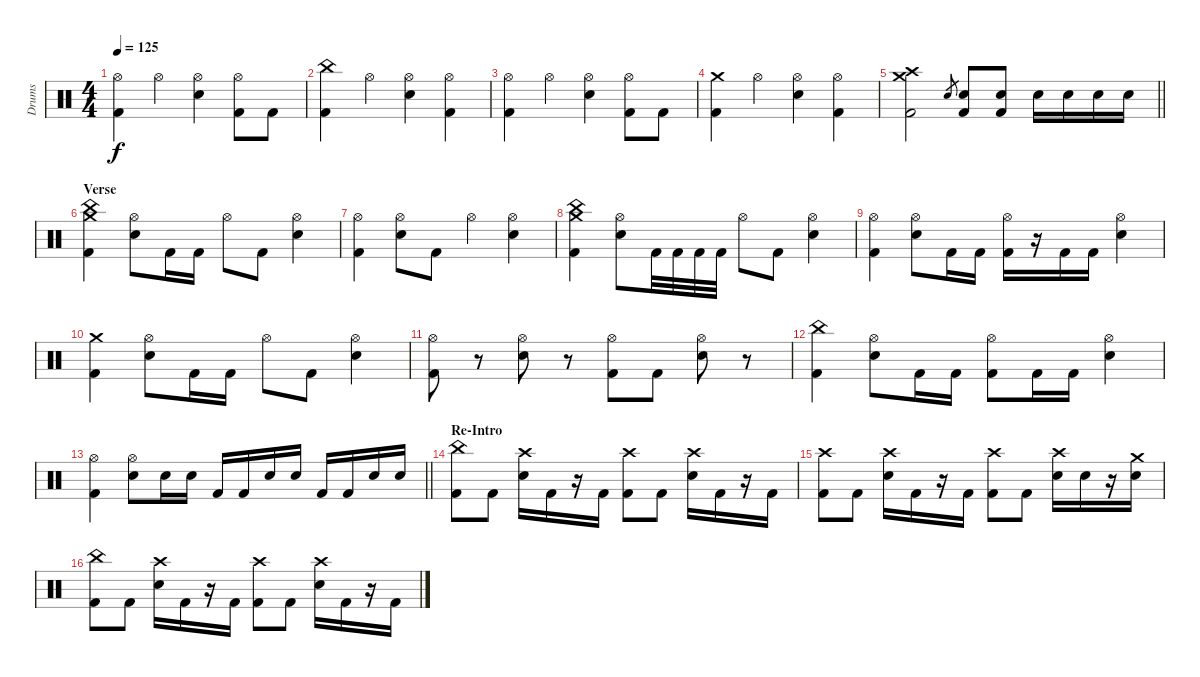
\track ("Drums" "Drums") {instrument percussion}
\staff {score}
\articulation defaults
\ts (4 4)
\tempo 125
\clef neutral
\ks c
("Hi-Hat (open)" "Kick (hit) 2").4{dy f} "Hi-Hat (open)".4 ("Hi-Hat (open)" "Electric Snare (hit)").4 ("Hi-Hat (open)" "Kick (hit) 2").8 "Kick (hit) 2".8 |
("China (hit)" "Kick (hit) 2").4 "Hi-Hat (open)".4 ("Hi-Hat (open)" "Electric Snare (hit)").4 ("Hi-Hat (open)" "Kick (hit) 2").4 |
("Hi-Hat (open)" "Kick (hit) 2").4 "Hi-Hat (open)".4 ("Hi-Hat (open)" "Electric Snare (hit)").4 ("Hi-Hat (open)" "Kick (hit) 2").8 "Kick (hit) 2".8 |
("Crash medium (hit)" "Kick (hit) 2").4 "Hi-Hat (open)".4 ("Hi-Hat (open)" "Electric Snare (hit)").4 ("Hi-Hat (open)" "Kick (hit) 2").4 |
\barLineRight lightlight
("Crash high (hit)" "Crash medium (hit)" "Kick (hit) 2").2 "Electric Snare (hit)".8{gr} ("Electric Snare (hit)" "Kick (hit) 2").8 ("Electric Snare (hit)" "Kick (hit) 2").8 "Electric Snare (hit)".16 "Electric Snare (hit)".16 "Electric Snare (hit)".16 "Electric Snare (hit)".16 |
\section ("" "Verse")
("China (hit)" "Crash medium (hit)" "Kick (hit) 2").4 ("Hi-Hat (open)" "Electric Snare (hit)").8 "Kick (hit) 2".16 "Kick (hit) 2".16 "Hi-Hat (open)".8 "Kick (hit) 2".8 ("Hi-Hat (open)" "Electric Snare (hit)").4 |
("Hi-Hat (open)" "Kick (hit) 2").4 ("Hi-Hat (open)" "Electric Snare (hit)").8 "Kick (hit) 2".8 "Hi-Hat (open)".4 ("Hi-Hat (open)" "Electric Snare (hit)").4 |
("China (hit)" "Crash medium (hit)" "Kick (hit) 2").4 ("Hi-Hat (open)" "Electric Snare (hit)").8 "Kick (hit) 2".32 "Kick (hit) 2".32 "Kick (hit) 2".32 "Kick (hit) 2".32 "Hi-Hat (open)".8 "Kick (hit) 2".8 ("Hi-Hat (open)" "Electric Snare (hit)").4 |
("Hi-Hat (open)" "Kick (hit) 2").4 ("Hi-Hat (open)" "Electric Snare (hit)").8 "Kick (hit) 2".16 "Kick (hit) 2".16 ("Hi-Hat (open)" "Kick (hit) 2").16 r.16 "Kick (hit) 2".16 "Kick (hit) 2".16 ("Hi-Hat (open)" "Electric Snare (hit)").4 |
("Crash medium (hit)" "Kick (hit) 2").4 ("Hi-Hat (open)" "Electric Snare (hit)").8 "Kick (hit) 2".16 "Kick (hit) 2".16 "Hi-Hat (open)".8 "Kick (hit) 2".8 ("Hi-Hat (open)" "Electric Snare (hit)").4 |
("Hi-Hat (open)" "Kick (hit) 2").8 r.8 ("Hi-Hat (open)" "Electric Snare (hit)").8 r.8 ("Hi-Hat (open)" "Kick (hit) 2").8 "Kick (hit) 2".8 ("Hi-Hat (open)" "Electric Snare (hit)").8 r.8 |
("China (hit)" "Kick (hit) 2").4 ("Hi-Hat (open)" "Electric Snare (hit)").8 "Kick (hit) 2".16 "Kick (hit) 2".16 ("Hi-Hat (open)" "Kick (hit) 2").8 "Kick (hit) 2".16 "Kick (hit) 2".16 ("Hi-Hat (open)" "Electric Snare (hit)").4 |
\barLineRight lightlight
("Hi-Hat (open)" "Kick (hit) 2").4 ("Hi-Hat (open)" "Electric Snare (hit)").8 "Electric Snare (hit)".16 "Electric Snare (hit)".16 "Kick (hit) 2".16 "Kick (hit) 2".16 "Electric Snare (hit)".16 "Electric Snare (hit)".16 "Kick (hit) 2".16 "Kick (hit) 2".16 "Electric Snare (hit)".16 "Electric Snare (hit)".16 |
\section ("" "Re-Intro")
("China (hit)" "Kick (hit) 2").8 "Kick (hit) 2".8 ("Crash high (hit)" "Electric Snare (hit)").16 "Kick (hit) 2".16 r.16 "Kick (hit) 2".16 ("Crash high (hit)" "Kick (hit) 2").8 "Kick (hit) 2".8 ("Crash high (hit)" "Electric Snare (hit)").16 "Kick (hit) 2".16 r.16 "Kick (hit) 2".16 |
("Crash high (hit)" "Kick (hit) 2").8 "Kick (hit) 2".8 ("Crash high (hit)" "Electric Snare (hit)").16 "Kick (hit) 2".16 r.16 "Kick (hit) 2".16 ("Crash high (hit)" "Kick (hit) 2").8 "Kick (hit) 2".8 ("Crash high (hit)" "Electric Snare (hit)").16 "Electric Snare (hit)".16 r.16 ("Crash medium (hit)" "Electric Snare (hit)").16 |
("China (hit)" "Kick (hit) 2").8 "Kick (hit) 2".8 ("Crash high (hit)" "Electric Snare (hit)").16 "Kick (hit) 2".16 r.16 "Kick (hit) 2".16 ("Crash high (hit)" "Kick (hit) 2").8 "Kick (hit) 2".8 ("Crash high (hit)" "Electric Snare (hit)").16 "Kick (hit) 2".16 r.16 "Kick (hit) 2".16
